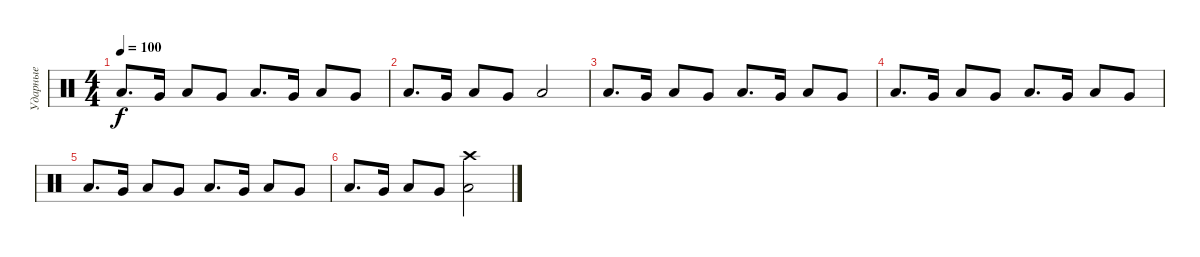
\track ("Ударные" "Ударные") {instrument percussion}
\staff {score}
\articulation defaults
\ts (4 4)
\tempo 100
\clef neutral
\ks c "Low Floor Tom (hit)".8{d dy f} "Very Low Tom (hit)".16 "Low Floor Tom (hit)".8 "Very Low Tom (hit)".8 "Low Floor Tom (hit)".8{d} "Very Low Tom (hit)".16 "Low Floor Tom (hit)".8 "Very Low Tom (hit)".8
|
"Low Floor Tom (hit)".8{d} "Very Low Tom (hit)".16 "Low Floor Tom (hit)".8 "Very Low Tom (hit)".8 "Low Floor Tom (hit)".2 |
"Low Floor Tom (hit)".8{d} "Very Low Tom (hit)".16 "Low Floor Tom (hit)".8 "Very Low Tom (hit)".8 "Low Floor Tom (hit)".8{d} "Very Low Tom (hit)".16 "Low Floor Tom (hit)".8 "Very Low Tom (hit)".8 |
"Low Floor Tom (hit)".8{d} "Very Low Tom (hit)".16 "Low Floor Tom (hit)".8 "Very Low Tom (hit)".8 "Low Floor Tom (hit)".8{d} "Very Low Tom (hit)".16 "Low Floor Tom (hit)".8 "Very Low Tom (hit)".8 |
"Low Floor Tom (hit)".8{d} "Very Low Tom (hit)".16 "Low Floor Tom (hit)".8 "Very Low Tom (hit)".8 "Low Floor Tom (hit)".8{d} "Very Low Tom (hit)".16 "Low Floor Tom (hit)".8 "Very Low Tom (hit)".8 |
"Low Floor Tom (hit)".8{d} "Very Low Tom (hit)".16 "Low Floor Tom (hit)".8 "Very Low Tom (hit)".8 ("Low Floor Tom (hit)" "Crash high (hit)").2
